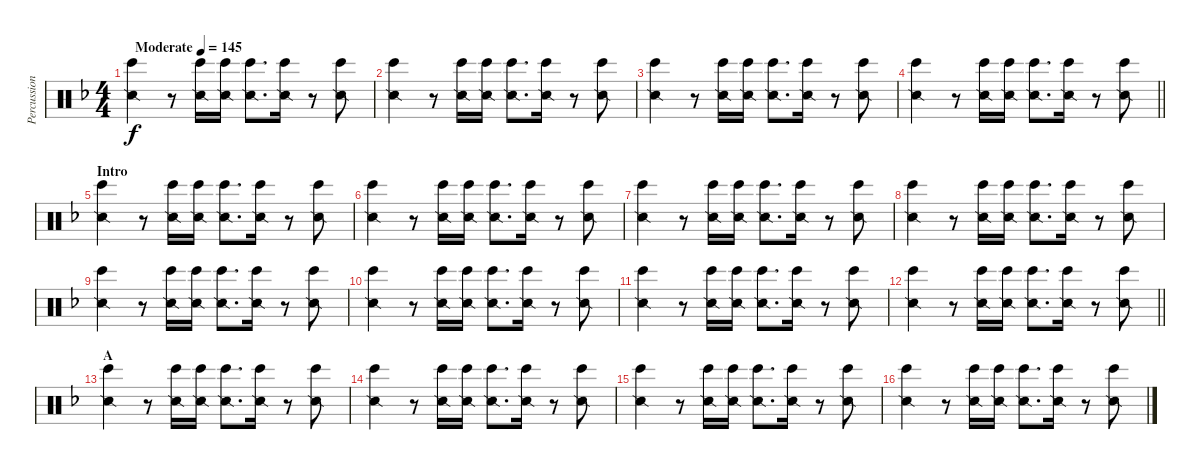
\track ("Percussion" "Percussion") {instrument percussion}
\staff {score}
\articulation defaults
\ts (4 4)
\tempo (145 "Moderate")
\clef neutral
\ks f
("Snare (side stick) 2" "Bongo High (hit)").4{dy f} r.8 ("Snare (side stick) 2" "Bongo High (hit)").16 ("Snare (side stick) 2" "Bongo High (hit)").16 ("Snare (side stick) 2" "Bongo High (hit)").8{d} ("Snare (side stick) 2" "Bongo High (hit)").16 r.8 ("Snare (side stick) 2" "Bongo High (hit)").8 |
("Snare (side stick) 2" "Bongo High (hit)").4 r.8 ("Snare (side stick) 2" "Bongo High (hit)").16 ("Snare (side stick) 2" "Bongo High (hit)").16 ("Snare (side stick) 2" "Bongo High (hit)").8{d} ("Snare (side stick) 2" "Bongo High (hit)").16 r.8 ("Snare (side stick) 2" "Bongo High (hit)").8 |
("Snare (side stick) 2" "Bongo High (hit)").4 r.8 ("Snare (side stick) 2" "Bongo High (hit)").16 ("Snare (side stick) 2" "Bongo High (hit)").16 ("Snare (side stick) 2" "Bongo High (hit)").8{d} ("Snare (side stick) 2" "Bongo High (hit)").16 r.8 ("Snare (side stick) 2" "Bongo High (hit)").8 |
\barLineRight lightlight
("Snare (side stick) 2" "Bongo High (hit)").4 r.8 ("Snare (side stick) 2" "Bongo High (hit)").16 ("Snare (side stick) 2" "Bongo High (hit)").16 ("Snare (side stick) 2" "Bongo High (hit)").8{d} ("Snare (side stick) 2" "Bongo High (hit)").16 r.8 ("Snare (side stick) 2" "Bongo High (hit)").8 |
\section ("" "Intro")
("Snare (side stick) 2" "Bongo High (hit)").4 r.8 ("Snare (side stick) 2" "Bongo High (hit)").16 ("Snare (side stick) 2" "Bongo High (hit)").16 ("Snare (side stick) 2" "Bongo High (hit)").8{d} ("Snare (side stick) 2" "Bongo High (hit)").16 r.8 ("Snare (side stick) 2" "Bongo High (hit)").8 |
("Snare (side stick) 2" "Bongo High (hit)").4 r.8 ("Snare (side stick) 2" "Bongo High (hit)").16 ("Snare (side stick) 2" "Bongo High (hit)").16 ("Snare (side stick) 2" "Bongo High (hit)").8{d} ("Snare (side stick) 2" "Bongo High (hit)").16 r.8 ("Snare (side stick) 2" "Bongo High (hit)").8 |
("Snare (side stick) 2" "Bongo High (hit)").4 r.8 ("Snare (side stick) 2" "Bongo High (hit)").16 ("Snare (side stick) 2" "Bongo High (hit)").16 ("Snare (side stick) 2" "Bongo High (hit)").8{d} ("Snare (side stick) 2" "Bongo High (hit)").16 r.8 ("Snare (side stick) 2" "Bongo High (hit)").8 |
("Snare (side stick) 2" "Bongo High (hit)").4 r.8 ("Snare (side stick) 2" "Bongo High (hit)").16 ("Snare (side stick) 2" "Bongo High (hit)").16 ("Snare (side stick) 2" "Bongo High (hit)").8{d} ("Snare (side stick) 2" "Bongo High (hit)").16 r.8 ("Snare (side stick) 2" "Bongo High (hit)").8 |
("Snare (side stick) 2" "Bongo High (hit)").4 r.8 ("Snare (side stick) 2" "Bongo High (hit)").16 ("Snare (side stick) 2" "Bongo High (hit)").16 ("Snare (side stick) 2" "Bongo High (hit)").8{d} ("Snare (side stick) 2" "Bongo High (hit)").16 r.8 ("Snare (side stick) 2" "Bongo High (hit)").8 |
("Snare (side stick) 2" "Bongo High (hit)").4 r.8 ("Snare (side stick) 2" "Bongo High (hit)").16 ("Snare (side stick) 2" "Bongo High (hit)").16 ("Snare (side stick) 2" "Bongo High (hit)").8{d} ("Snare (side stick) 2" "Bongo High (hit)").16 r.8 ("Snare (side stick) 2" "Bongo High (hit)").8 |
("Snare (side stick) 2" "Bongo High (hit)").4 r.8 ("Snare (side stick) 2" "Bongo High (hit)").16 ("Snare (side stick) 2" "Bongo High (hit)").16 ("Snare (side stick) 2" "Bongo High (hit)").8{d} ("Snare (side stick) 2" "Bongo High (hit)").16 r.8 ("Snare (side stick) 2" "Bongo High (hit)").8 |
\barLineRight lightlight
("Snare (side stick) 2" "Bongo High (hit)").4 r.8 ("Snare (side stick) 2" "Bongo High (hit)").16 ("Snare (side stick) 2" "Bongo High (hit)").16 ("Snare (side stick) 2" "Bongo High (hit)").8{d} ("Snare (side stick) 2" "Bongo High (hit)").16 r.8 ("Snare (side stick) 2" "Bongo High (hit)").8 |
\section ("" "A")
("Snare (side stick) 2" "Bongo High (hit)").4 r.8 ("Snare (side stick) 2" "Bongo High (hit)").16 ("Snare (side stick) 2" "Bongo High (hit)").16 ("Snare (side stick) 2" "Bongo High (hit)").8{d} ("Snare (side stick) 2" "Bongo High (hit)").16 r.8 ("Snare (side stick) 2" "Bongo High (hit)").8 |
("Snare (side stick) 2" "Bongo High (hit)").4 r.8 ("Snare (side stick) 2" "Bongo High (hit)").16 ("Snare (side stick) 2" "Bongo High (hit)").16 ("Snare (side stick) 2" "Bongo High (hit)").8{d} ("Snare (side stick) 2" "Bongo High (hit)").16 r.8 ("Snare (side stick) 2" "Bongo High (hit)").8 |
("Snare (side stick) 2" "Bongo High (hit)").4 r.8 ("Snare (side stick) 2" "Bongo High (hit)").16 ("Snare (side stick) 2" "Bongo High (hit)").16 ("Snare (side stick) 2" "Bongo High (hit)").8{d} ("Snare (side stick) 2" "Bongo High (hit)").16 r.8 ("Snare (side stick) 2" "Bongo High (hit)").8 |
("Snare (side stick) 2" "Bongo High (hit)").4 r.8 ("Snare (side stick) 2" "Bongo High (hit)").16 ("Snare (side stick) 2" "Bongo High (hit)").16 ("Snare (side stick) 2" "Bongo High (hit)").8{d} ("Snare (side stick) 2" "Bongo High (hit)").16 r.8 ("Snare (side stick) 2" "Bongo High (hit)").8
